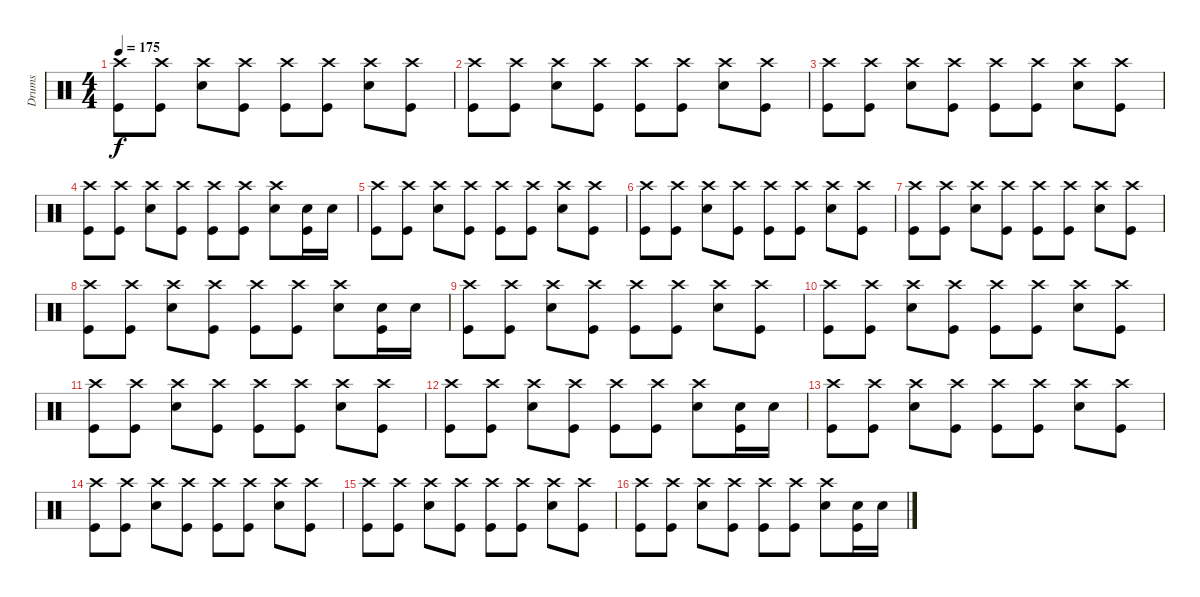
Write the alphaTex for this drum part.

\track ("Drums" "Drums") {instrument percussion}
\staff {score}
\articulation defaults
\ts (4 4)
\tempo 175
\clef neutral
\ks c
("Crash high (hit)" "Kick (hit)").8{dy f} ("Crash high (hit)" "Kick (hit)").8 ("Crash high (hit)" "Snare (hit) 2").8 ("Crash high (hit)" "Kick (hit)").8 ("Crash high (hit)" "Kick (hit)").8 ("Crash high (hit)" "Kick (hit)").8 ("Crash high (hit)" "Snare (hit) 2").8 ("Crash high (hit)" "Kick (hit)").8 |
("Crash high (hit)" "Kick (hit)").8 ("Crash high (hit)" "Kick (hit)").8 ("Crash high (hit)" "Snare (hit) 2").8 ("Crash high (hit)" "Kick (hit)").8 ("Crash high (hit)" "Kick (hit)").8 ("Crash high (hit)" "Kick (hit)").8 ("Crash high (hit)" "Snare (hit) 2").8 ("Crash high (hit)" "Kick (hit)").8 |
("Crash high (hit)" "Kick (hit)").8 ("Crash high (hit)" "Kick (hit)").8 ("Crash high (hit)" "Snare (hit) 2").8 ("Crash high (hit)" "Kick (hit)").8 ("Crash high (hit)" "Kick (hit)").8 ("Crash high (hit)" "Kick (hit)").8 ("Crash high (hit)" "Snare (hit) 2").8 ("Crash high (hit)" "Kick (hit)").8 |
("Crash high (hit)" "Kick (hit)").8 ("Crash high (hit)" "Kick (hit)").8 ("Crash high (hit)" "Snare (hit) 2").8 ("Crash high (hit)" "Kick (hit)").8 ("Crash high (hit)" "Kick (hit)").8 ("Crash high (hit)" "Kick (hit)").8 ("Crash high (hit)" "Snare (hit) 2").8 ("Snare (hit) 2" "Kick (hit)").16 "Snare (hit) 2".16 |
("Crash high (hit)" "Kick (hit)").8 ("Crash high (hit)" "Kick (hit)").8 ("Crash high (hit)" "Snare (hit) 2").8 ("Crash high (hit)" "Kick (hit)").8 ("Crash high (hit)" "Kick (hit)").8 ("Crash high (hit)" "Kick (hit)").8 ("Crash high (hit)" "Snare (hit) 2").8 ("Crash high (hit)" "Kick (hit)").8 |
("Crash high (hit)" "Kick (hit)").8 ("Crash high (hit)" "Kick (hit)").8 ("Crash high (hit)" "Snare (hit) 2").8 ("Crash high (hit)" "Kick (hit)").8 ("Crash high (hit)" "Kick (hit)").8 ("Crash high (hit)" "Kick (hit)").8 ("Crash high (hit)" "Snare (hit) 2").8 ("Crash high (hit)" "Kick (hit)").8 |
("Crash high (hit)" "Kick (hit)").8 ("Crash high (hit)" "Kick (hit)").8 ("Crash high (hit)" "Snare (hit) 2").8 ("Crash high (hit)" "Kick (hit)").8 ("Crash high (hit)" "Kick (hit)").8 ("Crash high (hit)" "Kick (hit)").8 ("Crash high (hit)" "Snare (hit) 2").8 ("Crash high (hit)" "Kick (hit)").8 |
("Crash high (hit)" "Kick (hit)").8 ("Crash high (hit)" "Kick (hit)").8 ("Crash high (hit)" "Snare (hit) 2").8 ("Crash high (hit)" "Kick (hit)").8 ("Crash high (hit)" "Kick (hit)").8 ("Crash high (hit)" "Kick (hit)").8 ("Crash high (hit)" "Snare (hit) 2").8 ("Snare (hit) 2" "Kick (hit)").16 "Snare (hit) 2".16 |
("Crash high (hit)" "Kick (hit)").8 ("Crash high (hit)" "Kick (hit)").8 ("Crash high (hit)" "Snare (hit) 2").8 ("Crash high (hit)" "Kick (hit)").8 ("Crash high (hit)" "Kick (hit)").8 ("Crash high (hit)" "Kick (hit)").8 ("Crash high (hit)" "Snare (hit) 2").8 ("Crash high (hit)" "Kick (hit)").8 |
("Crash high (hit)" "Kick (hit)").8 ("Crash high (hit)" "Kick (hit)").8 ("Crash high (hit)" "Snare (hit) 2").8 ("Crash high (hit)" "Kick (hit)").8 ("Crash high (hit)" "Kick (hit)").8 ("Crash high (hit)" "Kick (hit)").8 ("Crash high (hit)" "Snare (hit) 2").8 ("Crash high (hit)" "Kick (hit)").8 |
("Crash high (hit)" "Kick (hit)").8 ("Crash high (hit)" "Kick (hit)").8 ("Crash high (hit)" "Snare (hit) 2").8 ("Crash high (hit)" "Kick (hit)").8 ("Crash high (hit)" "Kick (hit)").8 ("Crash high (hit)" "Kick (hit)").8 ("Crash high (hit)" "Snare (hit) 2").8 ("Crash high (hit)" "Kick (hit)").8 |
("Crash high (hit)" "Kick (hit)").8 ("Crash high (hit)" "Kick (hit)").8 ("Crash high (hit)" "Snare (hit) 2").8 ("Crash high (hit)" "Kick (hit)").8 ("Crash high (hit)" "Kick (hit)").8 ("Crash high (hit)" "Kick (hit)").8 ("Crash high (hit)" "Snare (hit) 2").8 ("Snare (hit) 2" "Kick (hit)").16 "Snare (hit) 2".16 |
("Crash high (hit)" "Kick (hit)").8 ("Crash high (hit)" "Kick (hit)").8 ("Crash high (hit)" "Snare (hit) 2").8 ("Crash high (hit)" "Kick (hit)").8 ("Crash high (hit)" "Kick (hit)").8 ("Crash high (hit)" "Kick (hit)").8 ("Crash high (hit)" "Snare (hit) 2").8 ("Crash high (hit)" "Kick (hit)").8 |
("Crash high (hit)" "Kick (hit)").8 ("Crash high (hit)" "Kick (hit)").8 ("Crash high (hit)" "Snare (hit) 2").8 ("Crash high (hit)" "Kick (hit)").8 ("Crash high (hit)" "Kick (hit)").8 ("Crash high (hit)" "Kick (hit)").8 ("Crash high (hit)" "Snare (hit) 2").8 ("Crash high (hit)" "Kick (hit)").8 |
("Crash high (hit)" "Kick (hit)").8 ("Crash high (hit)" "Kick (hit)").8 ("Crash high (hit)" "Snare (hit) 2").8 ("Crash high (hit)" "Kick (hit)").8 ("Crash high (hit)" "Kick (hit)").8 ("Crash high (hit)" "Kick (hit)").8 ("Crash high (hit)" "Snare (hit) 2").8 ("Crash high (hit)" "Kick (hit)").8 |
("Crash high (hit)" "Kick (hit)").8 ("Crash high (hit)" "Kick (hit)").8 ("Crash high (hit)" "Snare (hit) 2").8 ("Crash high (hit)" "Kick (hit)").8 ("Crash high (hit)" "Kick (hit)").8 ("Crash high (hit)" "Kick (hit)").8 ("Crash high (hit)" "Snare (hit) 2").8 ("Snare (hit) 2" "Kick (hit)").16 "Snare (hit) 2".16
